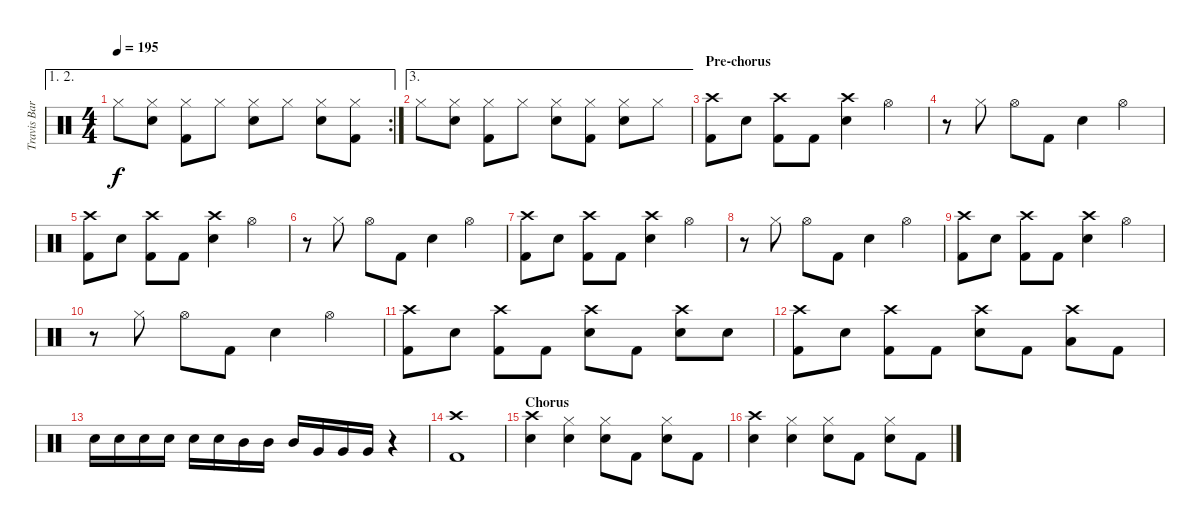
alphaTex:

\track ("Travis Barker (Schlagzeug)" "Travis Bar") {instrument percussion}
\staff {score}
\articulation defaults
\ae (1 2)
\rc 2
\ts (4 4)
\tempo 195
\clef neutral
\ks c "Hi-Hat (closed)".8{dy f}
("Hi-Hat (closed)" "Electric Snare (hit)").8 ("Hi-Hat (closed)" "Kick (hit) 2").8 "Hi-Hat (closed)".8 ("Hi-Hat (closed)" "Electric Snare (hit)").8 "Hi-Hat (closed)".8 ("Hi-Hat (closed)" "Electric Snare (hit)").8 ("Hi-Hat (closed)" "Kick (hit) 2").8 |
\ae 3 "Hi-Hat (closed)".8
("Hi-Hat (closed)" "Electric Snare (hit)").8 ("Hi-Hat (closed)" "Kick (hit) 2").8 "Hi-Hat (closed)".8 ("Hi-Hat (closed)" "Electric Snare (hit)").8 ("Hi-Hat (closed)" "Kick (hit) 2").8 ("Hi-Hat (closed)" "Electric Snare (hit)").8 "Hi-Hat (closed)".8 |
\section ("" "Pre-chorus")
("Crash high (hit)" "Kick (hit) 2").8 "Electric Snare (hit)".8 ("Crash high (hit)" "Kick (hit) 2").8 "Kick (hit) 2".8 ("Crash high (hit)" "Electric Snare (hit)").4 "Hi-Hat (open)".4 |
r.8 "Hi-Hat (closed)".8 "Hi-Hat (open)".8 "Kick (hit) 2".8 "Electric Snare (hit)".4 "Hi-Hat (open)".4 |
("Crash high (hit)" "Kick (hit) 2").8 "Electric Snare (hit)".8 ("Crash high (hit)" "Kick (hit) 2").8 "Kick (hit) 2".8 ("Crash high (hit)" "Electric Snare (hit)").4 "Hi-Hat (open)".4 |
r.8 "Hi-Hat (closed)".8 "Hi-Hat (open)".8 "Kick (hit) 2".8 "Electric Snare (hit)".4 "Hi-Hat (open)".4 |
("Crash high (hit)" "Kick (hit) 2").8 "Electric Snare (hit)".8 ("Crash high (hit)" "Kick (hit) 2").8 "Kick (hit) 2".8 ("Crash high (hit)" "Electric Snare (hit)").4 "Hi-Hat (open)".4 |
r.8 "Hi-Hat (closed)".8 "Hi-Hat (open)".8 "Kick (hit) 2".8 "Electric Snare (hit)".4 "Hi-Hat (open)".4 |
("Crash high (hit)" "Kick (hit) 2").8 "Electric Snare (hit)".8 ("Crash high (hit)" "Kick (hit) 2").8 "Kick (hit) 2".8 ("Crash high (hit)" "Electric Snare (hit)").4 "Hi-Hat (open)".4 |
r.8 "Hi-Hat (closed)".8 "Hi-Hat (open)".8 "Kick (hit) 2".8 "Electric Snare (hit)".4 "Hi-Hat (open)".4 |
("Crash high (hit)" "Kick (hit) 2").8 "Electric Snare (hit)".8 ("Crash high (hit)" "Kick (hit) 2").8 "Kick (hit) 2".8 ("Crash high (hit)" "Electric Snare (hit)").8 "Kick (hit) 2".8 ("Crash high (hit)" "Electric Snare (hit)").8 "Electric Snare (hit)".8 |
("Crash high (hit)" "Kick (hit) 2").8 "Electric Snare (hit)".8 ("Crash high (hit)" "Kick (hit) 2").8 "Kick (hit) 2".8 ("Crash high (hit)" "Electric Snare (hit)").8 "Kick (hit) 2".8 ("Low Tom (hit)" "Crash high (hit)").8 "Kick (hit) 2".8 |
"Electric Snare (hit)".16 "Electric Snare (hit)".16 "Electric Snare (hit)".16 "Electric Snare (hit)".16 "Electric Snare (hit)".16 "Electric Snare (hit)".16 "Mid Tom (hit)".16 "Mid Tom (hit)".16 "Mid Tom (hit)".16 "Very Low Tom (hit)".16 "Very Low Tom (hit)".16 "Very Low Tom (hit)".16 r.4 |
("Crash high (hit)" "Kick (hit) 2").1 |
\section ("" "Chorus")
("Crash high (hit)" "Electric Snare (hit)").4 ("Hi-Hat (closed)" "Electric Snare (hit)").4 ("Hi-Hat (closed)" "Electric Snare (hit)").8 "Kick (hit) 2".8 ("Hi-Hat (closed)" "Electric Snare (hit)").8 "Kick (hit) 2".8 |
("Crash high (hit)" "Electric Snare (hit)").4 ("Hi-Hat (closed)" "Electric Snare (hit)").4 ("Hi-Hat (closed)" "Electric Snare (hit)").8 "Kick (hit) 2".8 ("Hi-Hat (closed)" "Electric Snare (hit)").8 "Kick (hit) 2".8
